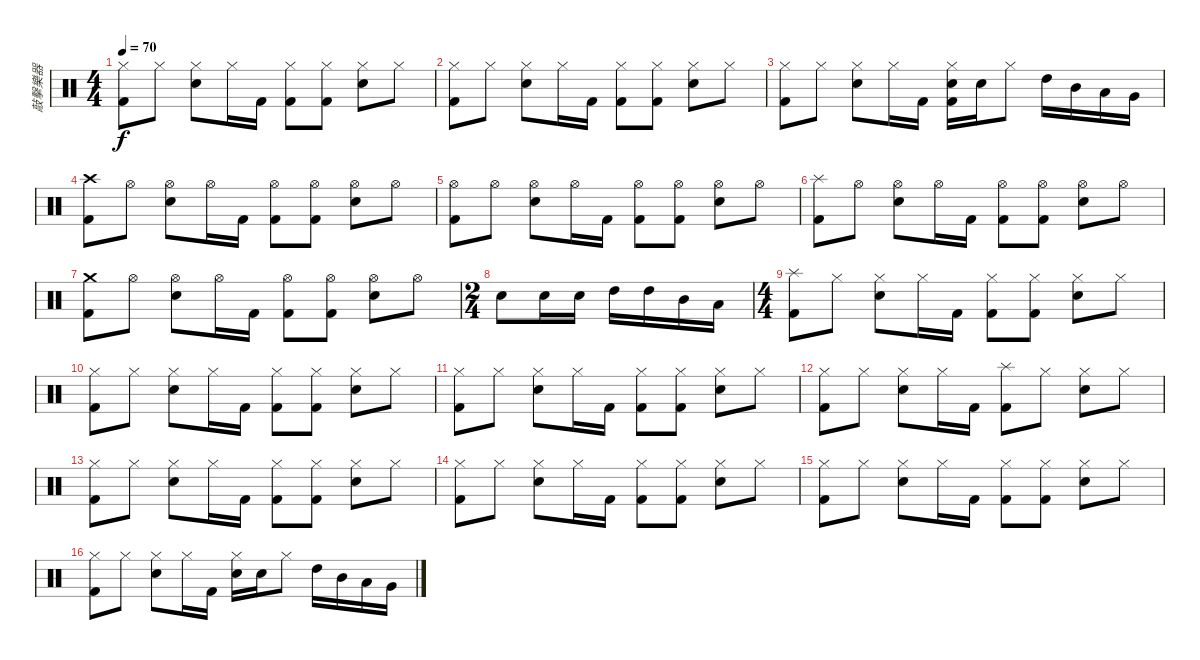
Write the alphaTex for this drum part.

\track ("敲擊樂器" "敲擊樂器") {instrument percussion}
\staff {score}
\articulation defaults
\ts (4 4)
\tempo 70
\clef neutral
\ks c
("Hi-Hat (closed)" "Kick (hit) 2").8{dy f} "Hi-Hat (closed)".8 ("Hi-Hat (closed)" "Snare (hit) 2").8 "Hi-Hat (closed)".16 "Kick (hit) 2".16 ("Hi-Hat (closed)" "Kick (hit) 2").8 ("Hi-Hat (closed)" "Kick (hit) 2").8 ("Hi-Hat (closed)" "Snare (hit) 2").8 "Hi-Hat (closed)".8 |
("Hi-Hat (closed)" "Kick (hit) 2").8 "Hi-Hat (closed)".8 ("Hi-Hat (closed)" "Snare (hit) 2").8 "Hi-Hat (closed)".16 "Kick (hit) 2".16 ("Hi-Hat (closed)" "Kick (hit) 2").8 ("Hi-Hat (closed)" "Kick (hit) 2").8 ("Hi-Hat (closed)" "Snare (hit) 2").8 "Hi-Hat (closed)".8 |
("Hi-Hat (closed)" "Kick (hit) 2").8 "Hi-Hat (closed)".8 ("Hi-Hat (closed)" "Snare (hit) 2").8 "Hi-Hat (closed)".16 "Kick (hit) 2".16 ("Hi-Hat (closed)" "Snare (hit) 2" "Kick (hit) 2").16 "Snare (hit) 2".16 "Hi-Hat (closed)".8 "High Tom (hit)".16 "Mid Tom (hit)".16 "Low Tom (hit)".16 "Very Low Tom (hit)".16 |
("Crash high (hit)" "Kick (hit) 2").8 "Hi-Hat (open)".8 ("Hi-Hat (open)" "Snare (hit) 2").8 "Hi-Hat (open)".16 "Kick (hit) 2".16 ("Hi-Hat (open)" "Kick (hit) 2").8 ("Hi-Hat (open)" "Kick (hit) 2").8 ("Hi-Hat (open)" "Snare (hit) 2").8 "Hi-Hat (open)".8 |
("Hi-Hat (open)" "Kick (hit) 2").8 "Hi-Hat (open)".8 ("Hi-Hat (open)" "Snare (hit) 2").8 "Hi-Hat (open)".16 "Kick (hit) 2".16 ("Hi-Hat (open)" "Kick (hit) 2").8 ("Hi-Hat (open)" "Kick (hit) 2").8 ("Hi-Hat (open)" "Snare (hit) 2").8 "Hi-Hat (open)".8 |
("Splash (hit)" "Kick (hit) 2").8 "Hi-Hat (open)".8 ("Hi-Hat (open)" "Snare (hit) 2").8 "Hi-Hat (open)".16 "Kick (hit) 2".16 ("Hi-Hat (open)" "Kick (hit) 2").8 ("Hi-Hat (open)" "Kick (hit) 2").8 ("Hi-Hat (open)" "Snare (hit) 2").8 "Hi-Hat (open)".8 |
("Crash medium (hit)" "Kick (hit) 2").8 "Hi-Hat (open)".8 ("Hi-Hat (open)" "Snare (hit) 2").8 "Hi-Hat (open)".16 "Kick (hit) 2".16 ("Hi-Hat (open)" "Kick (hit) 2").8 ("Hi-Hat (open)" "Kick (hit) 2").8 ("Hi-Hat (open)" "Snare (hit) 2").8 "Hi-Hat (open)".8 |
\ts (2 4)
"Snare (hit) 2".8 "Snare (hit) 2".16 "Snare (hit) 2".16 "High Tom (hit)".16 "High Tom (hit)".16 "Mid Tom (hit)".16 "Low Tom (hit)".16 |
\ts (4 4)
("Splash (hit)" "Kick (hit) 2").8 "Hi-Hat (closed)".8 ("Hi-Hat (closed)" "Snare (hit) 2").8 "Hi-Hat (closed)".16 "Kick (hit) 2".16 ("Hi-Hat (closed)" "Kick (hit) 2").8 ("Hi-Hat (closed)" "Kick (hit) 2").8 ("Hi-Hat (closed)" "Snare (hit) 2").8 "Hi-Hat (closed)".8 |
("Hi-Hat (closed)" "Kick (hit) 2").8 "Hi-Hat (closed)".8 ("Hi-Hat (closed)" "Snare (hit) 2").8 "Hi-Hat (closed)".16 "Kick (hit) 2".16 ("Hi-Hat (closed)" "Kick (hit) 2").8 ("Hi-Hat (closed)" "Kick (hit) 2").8 ("Hi-Hat (closed)" "Snare (hit) 2").8 "Hi-Hat (closed)".8 |
("Hi-Hat (closed)" "Kick (hit) 2").8 "Hi-Hat (closed)".8 ("Hi-Hat (closed)" "Snare (hit) 2").8 "Hi-Hat (closed)".16 "Kick (hit) 2".16 ("Hi-Hat (closed)" "Kick (hit) 2").8 ("Hi-Hat (closed)" "Kick (hit) 2").8 ("Hi-Hat (closed)" "Snare (hit) 2").8 "Hi-Hat (closed)".8 |
("Hi-Hat (closed)" "Kick (hit) 2").8 "Hi-Hat (closed)".8 ("Hi-Hat (closed)" "Snare (hit) 2").8 "Hi-Hat (closed)".16 "Kick (hit) 2".16 ("Splash (hit)" "Kick (hit) 2").8 "Hi-Hat (closed)".8 ("Hi-Hat (closed)" "Snare (hit) 2").8 "Hi-Hat (closed)".8 |
("Hi-Hat (closed)" "Kick (hit) 2").8 "Hi-Hat (closed)".8 ("Hi-Hat (closed)" "Snare (hit) 2").8 "Hi-Hat (closed)".16 "Kick (hit) 2".16 ("Hi-Hat (closed)" "Kick (hit) 2").8 ("Hi-Hat (closed)" "Kick (hit) 2").8 ("Hi-Hat (closed)" "Snare (hit) 2").8 "Hi-Hat (closed)".8 |
("Hi-Hat (closed)" "Kick (hit) 2").8 "Hi-Hat (closed)".8 ("Hi-Hat (closed)" "Snare (hit) 2").8 "Hi-Hat (closed)".16 "Kick (hit) 2".16 ("Hi-Hat (closed)" "Kick (hit) 2").8 ("Hi-Hat (closed)" "Kick (hit) 2").8 ("Hi-Hat (closed)" "Snare (hit) 2").8 "Hi-Hat (closed)".8 |
("Hi-Hat (closed)" "Kick (hit) 2").8 "Hi-Hat (closed)".8 ("Hi-Hat (closed)" "Snare (hit) 2").8 "Hi-Hat (closed)".16 "Kick (hit) 2".16 ("Hi-Hat (closed)" "Kick (hit) 2").8 ("Hi-Hat (closed)" "Kick (hit) 2").8 ("Hi-Hat (closed)" "Snare (hit) 2").8 "Hi-Hat (closed)".8 |
("Hi-Hat (closed)" "Kick (hit) 2").8 "Hi-Hat (closed)".8 ("Hi-Hat (closed)" "Snare (hit) 2").8 "Hi-Hat (closed)".16 "Kick (hit) 2".16 ("Hi-Hat (closed)" "Snare (hit) 2").16 "Snare (hit) 2".16 "Hi-Hat (closed)".8 "High Tom (hit)".16 "Mid Tom (hit)".16 "Low Tom (hit)".16 "Very Low Tom (hit)".16
